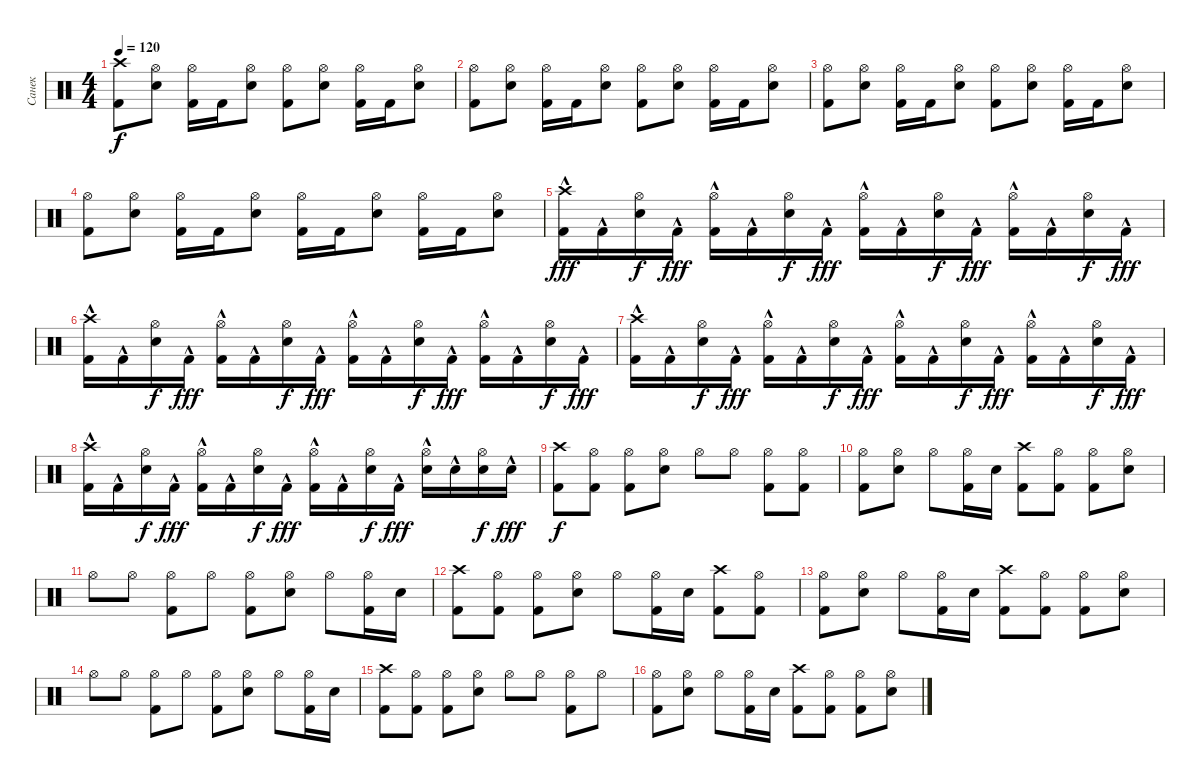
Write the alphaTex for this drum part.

\track ("Санек" "Санек") {instrument percussion}
\staff {score}
\articulation defaults
\ts (4 4)
\tempo 120
\clef neutral
\ks c
("Crash high (hit)" "Kick (hit) 2").8{dy f} ("Hi-Hat (open)" "Electric Snare (hit)").8 ("Hi-Hat (open)" "Kick (hit) 2").16 "Kick (hit) 2".16 ("Hi-Hat (open)" "Electric Snare (hit)").8 ("Hi-Hat (open)" "Kick (hit) 2").8 ("Hi-Hat (open)" "Electric Snare (hit)").8 ("Hi-Hat (open)" "Kick (hit) 2").16 "Kick (hit) 2".16 ("Hi-Hat (open)" "Electric Snare (hit)").8 |
("Hi-Hat (open)" "Kick (hit) 2").8 ("Hi-Hat (open)" "Electric Snare (hit)").8 ("Hi-Hat (open)" "Kick (hit) 2").16 "Kick (hit) 2".16 ("Hi-Hat (open)" "Electric Snare (hit)").8 ("Hi-Hat (open)" "Kick (hit) 2").8 ("Hi-Hat (open)" "Electric Snare (hit)").8 ("Hi-Hat (open)" "Kick (hit) 2").16 "Kick (hit) 2".16 ("Hi-Hat (open)" "Electric Snare (hit)").8 |
("Hi-Hat (open)" "Kick (hit) 2").8 ("Hi-Hat (open)" "Electric Snare (hit)").8 ("Hi-Hat (open)" "Kick (hit) 2").16 "Kick (hit) 2".16 ("Hi-Hat (open)" "Electric Snare (hit)").8 ("Hi-Hat (open)" "Kick (hit) 2").8 ("Hi-Hat (open)" "Electric Snare (hit)").8 ("Hi-Hat (open)" "Kick (hit) 2").16 "Kick (hit) 2".16 ("Hi-Hat (open)" "Electric Snare (hit)").8 |
("Hi-Hat (open)" "Kick (hit) 2").8 ("Hi-Hat (open)" "Electric Snare (hit)").8 ("Hi-Hat (open)" "Kick (hit) 2").16 "Kick (hit) 2".16 ("Hi-Hat (open)" "Electric Snare (hit)").8 ("Hi-Hat (open)" "Kick (hit) 2").16 "Kick (hit) 2".16 ("Hi-Hat (open)" "Electric Snare (hit)").8 ("Hi-Hat (open)" "Kick (hit) 2").16 "Kick (hit) 2".16 ("Hi-Hat (open)" "Electric Snare (hit)").8 |
("Crash high (hit)" "Kick (hit) 2"{hac}).16{dy fff} "Kick (hit) 2"{hac}.16 ("Hi-Hat (open)" "Electric Snare (hit)").16{dy f} "Kick (hit) 2"{hac}.16{dy fff} ("Hi-Hat (open)" "Kick (hit) 2"{hac}).16 "Kick (hit) 2"{hac}.16 ("Hi-Hat (open)" "Electric Snare (hit)").16{dy f} "Kick (hit) 2"{hac}.16{dy fff} ("Hi-Hat (open)" "Kick (hit) 2"{hac}).16 "Kick (hit) 2"{hac}.16 ("Hi-Hat (open)" "Electric Snare (hit)").16{dy f} "Kick (hit) 2"{hac}.16{dy fff} ("Hi-Hat (open)" "Kick (hit) 2"{hac}).16 "Kick (hit) 2"{hac}.16 ("Hi-Hat (open)" "Electric Snare (hit)").16{dy f} "Kick (hit) 2"{hac}.16{dy fff} |
("Crash high (hit)" "Kick (hit) 2"{hac}).16 "Kick (hit) 2"{hac}.16 ("Hi-Hat (open)" "Electric Snare (hit)").16{dy f} "Kick (hit) 2"{hac}.16{dy fff} ("Hi-Hat (open)" "Kick (hit) 2"{hac}).16 "Kick (hit) 2"{hac}.16 ("Hi-Hat (open)" "Electric Snare (hit)").16{dy f} "Kick (hit) 2"{hac}.16{dy fff} ("Hi-Hat (open)" "Kick (hit) 2"{hac}).16 "Kick (hit) 2"{hac}.16 ("Hi-Hat (open)" "Electric Snare (hit)").16{dy f} "Kick (hit) 2"{hac}.16{dy fff} ("Hi-Hat (open)" "Kick (hit) 2"{hac}).16 "Kick (hit) 2"{hac}.16 ("Hi-Hat (open)" "Electric Snare (hit)").16{dy f} "Kick (hit) 2"{hac}.16{dy fff} |
("Crash high (hit)" "Kick (hit) 2"{hac}).16 "Kick (hit) 2"{hac}.16 ("Hi-Hat (open)" "Electric Snare (hit)").16{dy f} "Kick (hit) 2"{hac}.16{dy fff} ("Hi-Hat (open)" "Kick (hit) 2"{hac}).16 "Kick (hit) 2"{hac}.16 ("Hi-Hat (open)" "Electric Snare (hit)").16{dy f} "Kick (hit) 2"{hac}.16{dy fff} ("Hi-Hat (open)" "Kick (hit) 2"{hac}).16 "Kick (hit) 2"{hac}.16 ("Hi-Hat (open)" "Electric Snare (hit)").16{dy f} "Kick (hit) 2"{hac}.16{dy fff} ("Hi-Hat (open)" "Kick (hit) 2"{hac}).16 "Kick (hit) 2"{hac}.16 ("Hi-Hat (open)" "Electric Snare (hit)").16{dy f} "Kick (hit) 2"{hac}.16{dy fff} |
("Crash high (hit)" "Kick (hit) 2"{hac}).16 "Kick (hit) 2"{hac}.16 ("Hi-Hat (open)" "Electric Snare (hit)").16{dy f} "Kick (hit) 2"{hac}.16{dy fff} ("Hi-Hat (open)" "Kick (hit) 2"{hac}).16 "Kick (hit) 2"{hac}.16 ("Hi-Hat (open)" "Electric Snare (hit)").16{dy f} "Kick (hit) 2"{hac}.16{dy fff} ("Hi-Hat (open)" "Kick (hit) 2"{hac}).16 "Kick (hit) 2"{hac}.16 ("Hi-Hat (open)" "Electric Snare (hit)").16{dy f} "Kick (hit) 2"{hac}.16{dy fff} ("Hi-Hat (open)" "Electric Snare (hit)"{hac}).16 "Electric Snare (hit)"{hac}.16 ("Hi-Hat (open)" "Electric Snare (hit)").16{dy f} "Electric Snare (hit)"{hac}.16{dy fff} |
("Crash high (hit)" "Kick (hit) 2").8{dy f} ("Hi-Hat (open)" "Kick (hit) 2").8 ("Hi-Hat (open)" "Kick (hit) 2").8 ("Hi-Hat (open)" "Electric Snare (hit)").8 "Hi-Hat (open)".8 "Hi-Hat (open)".8 ("Hi-Hat (open)" "Kick (hit) 2").8 ("Hi-Hat (open)" "Kick (hit) 2").8 |
("Hi-Hat (open)" "Kick (hit) 2").8 ("Hi-Hat (open)" "Electric Snare (hit)").8 "Hi-Hat (open)".8 ("Hi-Hat (open)" "Kick (hit) 2").16 "Electric Snare (hit)".16 ("Crash high (hit)" "Kick (hit) 2").8 ("Hi-Hat (open)" "Kick (hit) 2").8 ("Hi-Hat (open)" "Kick (hit) 2").8 ("Hi-Hat (open)" "Electric Snare (hit)").8 |
"Hi-Hat (open)".8 "Hi-Hat (open)".8 ("Hi-Hat (open)" "Kick (hit) 2").8 "Hi-Hat (open)".8 ("Hi-Hat (open)" "Kick (hit) 2").8 ("Hi-Hat (open)" "Electric Snare (hit)").8 "Hi-Hat (open)".8 ("Hi-Hat (open)" "Kick (hit) 2").16 "Electric Snare (hit)".16 |
("Crash high (hit)" "Kick (hit) 2").8 ("Hi-Hat (open)" "Kick (hit) 2").8 ("Hi-Hat (open)" "Kick (hit) 2").8 ("Hi-Hat (open)" "Electric Snare (hit)").8 "Hi-Hat (open)".8 ("Hi-Hat (open)" "Kick (hit) 2").16 "Electric Snare (hit)".16 ("Crash high (hit)" "Kick (hit) 2").8 ("Hi-Hat (open)" "Kick (hit) 2").8 |
("Hi-Hat (open)" "Kick (hit) 2").8 ("Hi-Hat (open)" "Electric Snare (hit)").8 "Hi-Hat (open)".8 ("Hi-Hat (open)" "Kick (hit) 2").16 "Electric Snare (hit)".16 ("Crash high (hit)" "Kick (hit) 2").8 ("Hi-Hat (open)" "Kick (hit) 2").8 ("Hi-Hat (open)" "Kick (hit) 2").8 ("Hi-Hat (open)" "Electric Snare (hit)").8 |
"Hi-Hat (open)".8 "Hi-Hat (open)".8 ("Hi-Hat (open)" "Kick (hit) 2").8 "Hi-Hat (open)".8 ("Hi-Hat (open)" "Kick (hit) 2").8 ("Hi-Hat (open)" "Electric Snare (hit)").8 "Hi-Hat (open)".8 ("Hi-Hat (open)" "Kick (hit) 2").16 "Electric Snare (hit)".16 |
("Crash high (hit)" "Kick (hit) 2").8 ("Hi-Hat (open)" "Kick (hit) 2").8 ("Hi-Hat (open)" "Kick (hit) 2").8 ("Hi-Hat (open)" "Electric Snare (hit)").8 "Hi-Hat (open)".8 "Hi-Hat (open)".8 ("Hi-Hat (open)" "Kick (hit) 2").8 "Hi-Hat (open)".8 |
("Hi-Hat (open)" "Kick (hit) 2").8 ("Hi-Hat (open)" "Electric Snare (hit)").8 "Hi-Hat (open)".8 ("Hi-Hat (open)" "Kick (hit) 2").16 "Electric Snare (hit)".16 ("Crash high (hit)" "Kick (hit) 2").8 ("Hi-Hat (open)" "Kick (hit) 2").8 ("Hi-Hat (open)" "Kick (hit) 2").8 ("Hi-Hat (open)" "Electric Snare (hit)").8
